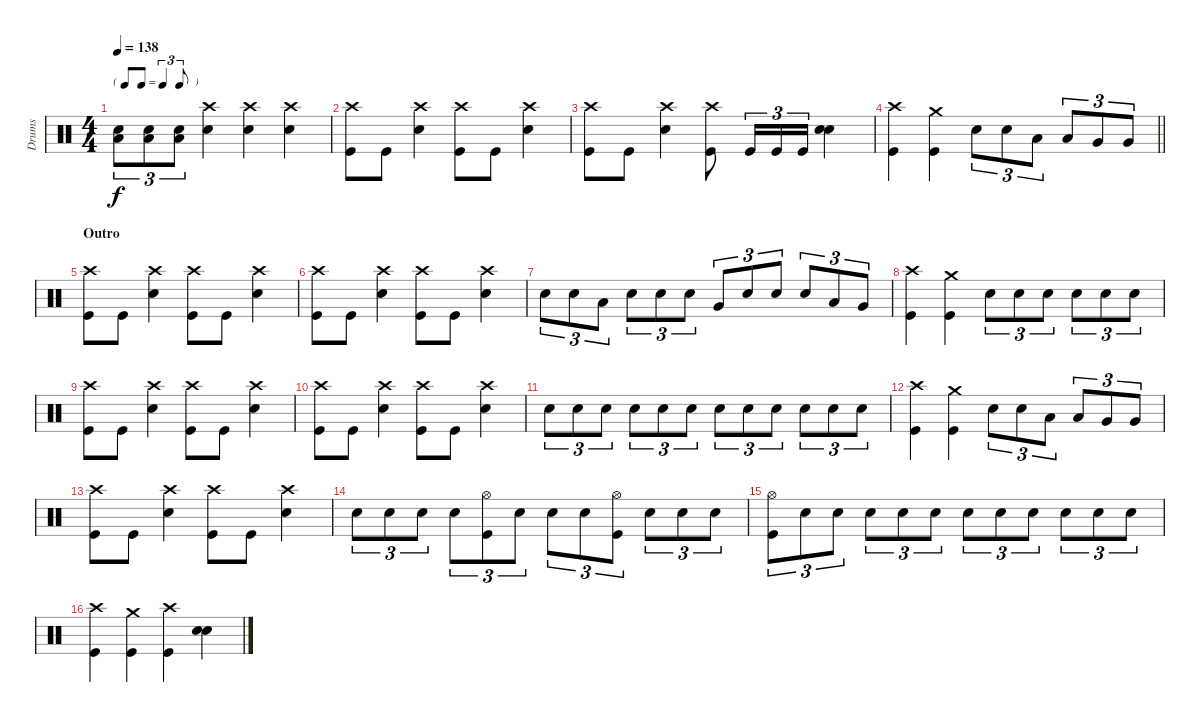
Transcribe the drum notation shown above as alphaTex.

\track ("Drums" "Drums") {instrument percussion}
\staff {score}
\articulation defaults
\ts (4 4)
\tf triplet8th
\tempo 138
\clef neutral
\ks c
("Low Tom (hit)" "Snare (hit) 2").8{tu (3 2) dy f} ("Low Tom (hit)" "Snare (hit) 2").8{tu (3 2)} ("Low Tom (hit)" "Snare (hit) 2").8{tu (3 2)} ("Crash high (hit)" "Snare (hit) 2").4 ("Crash high (hit)" "Snare (hit) 2").4 ("Crash high (hit)" "Snare (hit) 2").4 |
("Crash high (hit)" "Kick (hit)").8 "Kick (hit)".8 ("Crash high (hit)" "Snare (hit) 2").4 ("Crash high (hit)" "Kick (hit)").8 "Kick (hit)".8 ("Crash high (hit)" "Snare (hit) 2").4 |
("Crash high (hit)" "Kick (hit)").8 "Kick (hit)".8 ("Crash high (hit)" "Snare (hit) 2").4 ("Crash high (hit)" "Kick (hit)").8 "Kick (hit)".16{tu (3 2)} "Kick (hit)".16{tu (3 2)} "Kick (hit)".16{tu (3 2)} ("Snare (hit) 2" "Snare (hit) 2").4{bd 240} |
\barLineRight lightlight
("Crash high (hit)" "Kick (hit)").4 ("Crash medium (hit)" "Kick (hit)").4 "Snare (hit) 2".8{tu (3 2)} "Snare (hit) 2".8{tu (3 2)} "Low Tom (hit)".8{tu (3 2)} "Low Tom (hit)".8{tu (3 2)} "Very Low Tom (hit)".8{tu (3 2)} "Very Low Tom (hit)".8{tu (3 2)} |
\section ("" "Outro")
("Crash high (hit)" "Kick (hit)").8 "Kick (hit)".8 ("Crash high (hit)" "Snare (hit) 2").4 ("Crash high (hit)" "Kick (hit)").8 "Kick (hit)".8 ("Crash high (hit)" "Snare (hit) 2").4 |
("Crash high (hit)" "Kick (hit)").8 "Kick (hit)".8 ("Crash high (hit)" "Snare (hit) 2").4 ("Crash high (hit)" "Kick (hit)").8 "Kick (hit)".8 ("Crash high (hit)" "Snare (hit) 2").4 |
"Snare (hit) 2".8{tu (3 2)} "Snare (hit) 2".8{tu (3 2)} "Low Tom (hit)".8{tu (3 2)} "Snare (hit) 2".8{tu (3 2)} "Snare (hit) 2".8{tu (3 2)} "Snare (hit) 2".8{tu (3 2)} "Very Low Tom (hit)".8{tu (3 2)} "Snare (hit) 2".8{tu (3 2)} "Snare (hit) 2".8{tu (3 2)} "Snare (hit) 2".8{tu (3 2)} "Low Tom (hit)".8{tu (3 2)} "Very Low Tom (hit)".8{tu (3 2)} |
("Crash high (hit)" "Kick (hit)").4 ("Crash medium (hit)" "Kick (hit)").4 "Snare (hit) 2".8{tu (3 2)} "Snare (hit) 2".8{tu (3 2)} "Snare (hit) 2".8{tu (3 2)} "Snare (hit) 2".8{tu (3 2)} "Snare (hit) 2".8{tu (3 2)} "Snare (hit) 2".8{tu (3 2)} |
("Crash high (hit)" "Kick (hit)").8 "Kick (hit)".8 ("Crash high (hit)" "Snare (hit) 2").4 ("Crash high (hit)" "Kick (hit)").8 "Kick (hit)".8 ("Crash high (hit)" "Snare (hit) 2").4 |
("Crash high (hit)" "Kick (hit)").8 "Kick (hit)".8 ("Crash high (hit)" "Snare (hit) 2").4 ("Crash high (hit)" "Kick (hit)").8 "Kick (hit)".8 ("Crash high (hit)" "Snare (hit) 2").4 |
"Snare (hit) 2".8{tu (3 2)} "Snare (hit) 2".8{tu (3 2)} "Snare (hit) 2".8{tu (3 2)} "Snare (hit) 2".8{tu (3 2)} "Snare (hit) 2".8{tu (3 2)} "Snare (hit) 2".8{tu (3 2)} "Snare (hit) 2".8{tu (3 2)} "Snare (hit) 2".8{tu (3 2)} "Snare (hit) 2".8{tu (3 2)} "Snare (hit) 2".8{tu (3 2)} "Snare (hit) 2".8{tu (3 2)} "Snare (hit) 2".8{tu (3 2)} |
("Crash high (hit)" "Kick (hit)").4 ("Crash medium (hit)" "Kick (hit)").4 "Snare (hit) 2".8{tu (3 2)} "Snare (hit) 2".8{tu (3 2)} "Low Tom (hit)".8{tu (3 2)} "Low Tom (hit)".8{tu (3 2)} "Very Low Tom (hit)".8{tu (3 2)} "Very Low Tom (hit)".8{tu (3 2)} |
("Crash high (hit)" "Kick (hit)").8 "Kick (hit)".8 ("Crash high (hit)" "Snare (hit) 2").4 ("Crash high (hit)" "Kick (hit)").8 "Kick (hit)".8 ("Crash high (hit)" "Snare (hit) 2").4 |
"Snare (hit) 2".8{tu (3 2)} "Snare (hit) 2".8{tu (3 2)} "Snare (hit) 2".8{tu (3 2)} "Snare (hit) 2".8{tu (3 2)} ("Hi-Hat (open)" "Kick (hit)").8{tu (3 2)} "Snare (hit) 2".8{tu (3 2)} "Snare (hit) 2".8{tu (3 2)} "Snare (hit) 2".8{tu (3 2)} ("Hi-Hat (open)" "Kick (hit)").8{tu (3 2)} "Snare (hit) 2".8{tu (3 2)} "Snare (hit) 2".8{tu (3 2)} "Snare (hit) 2".8{tu (3 2)} |
("Hi-Hat (open)" "Kick (hit)").8{tu (3 2)} "Snare (hit) 2".8{tu (3 2)} "Snare (hit) 2".8{tu (3 2)} "Snare (hit) 2".8{tu (3 2)} "Snare (hit) 2".8{tu (3 2)} "Snare (hit) 2".8{tu (3 2)} "Snare (hit) 2".8{tu (3 2)} "Snare (hit) 2".8{tu (3 2)} "Snare (hit) 2".8{tu (3 2)} "Snare (hit) 2".8{tu (3 2)} "Snare (hit) 2".8{tu (3 2)} "Snare (hit) 2".8{tu (3 2)} |
("Crash high (hit)" "Kick (hit)").4 ("Crash medium (hit)" "Kick (hit)").4 ("Crash high (hit)" "Kick (hit)").4 ("Snare (hit) 2" "Snare (hit) 2").4{bd 240}
